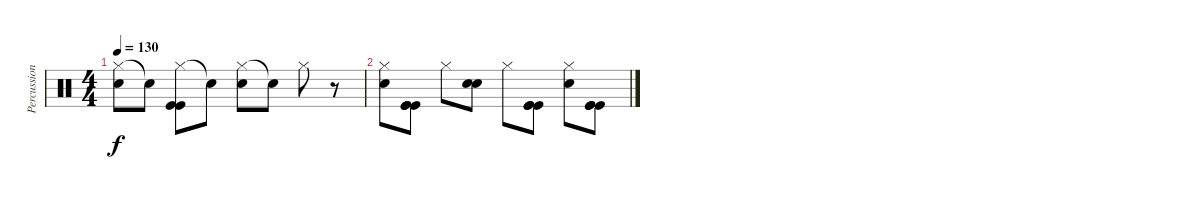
\track ("Percussion" "Percussion") {instrument percussion}
\staff {score}
\articulation defaults
\ts (4 4)
\tempo 130
\clef neutral
\ks c
("Hi-Hat (closed)" "Electric Snare (hit)").8{dy f} "Snare (hit)"{t}.8 ("Hi-Hat (closed)" "Kick (hit)" "Kick (hit)").8 "Snare (hit)"{t}.8 ("Hi-Hat (closed)" "Electric Snare (hit)").8 "Snare (hit)"{t}.8 "Hi-Hat (closed)".8 r.8 |
("Hi-Hat (closed)" "Electric Snare (hit)").8 ("Kick (hit)" "Kick (hit)" "Kick (hit)").8 "Hi-Hat (closed)".8 ("Electric Snare (hit)" "Electric Snare (hit)").8 "Hi-Hat (closed)".8 ("Kick (hit)" "Kick (hit)" "Kick (hit)").8 ("Hi-Hat (closed)" "Electric Snare (hit)").8 ("Kick (hit)" "Kick (hit)" "Kick (hit)").8
